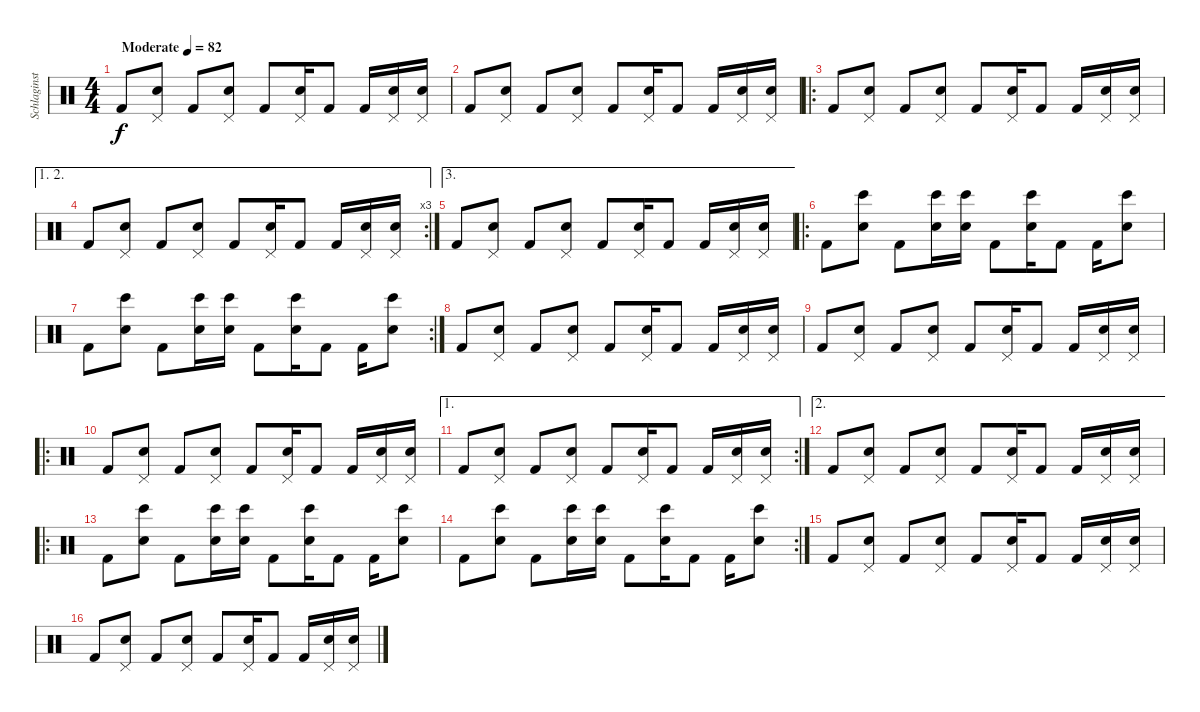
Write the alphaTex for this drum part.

\track ("Schlaginstrumente - Auswahl" "Schlaginst") {instrument percussion}
\staff {score}
\articulation defaults
\ts (4 4)
\tempo (82 "Moderate")
\clef neutral
\ks c "Kick (hit) 2".8{dy f}
("Pedal Hi-Hat (hit)" "Electric Snare (hit)").8 "Kick (hit) 2".8 ("Pedal Hi-Hat (hit)" "Electric Snare (hit)").8 "Kick (hit) 2".8 ("Pedal Hi-Hat (hit)" "Electric Snare (hit)").16 "Kick (hit) 2".8 "Kick (hit) 2".16 ("Pedal Hi-Hat (hit)" "Electric Snare (hit)").16 ("Pedal Hi-Hat (hit)" "Electric Snare (hit)").16 |
"Kick (hit) 2".8 ("Pedal Hi-Hat (hit)" "Electric Snare (hit)").8 "Kick (hit) 2".8 ("Pedal Hi-Hat (hit)" "Electric Snare (hit)").8 "Kick (hit) 2".8 ("Pedal Hi-Hat (hit)" "Electric Snare (hit)").16 "Kick (hit) 2".8 "Kick (hit) 2".16 ("Pedal Hi-Hat (hit)" "Electric Snare (hit)").16 ("Pedal Hi-Hat (hit)" "Electric Snare (hit)").16 |
\ro "Kick (hit) 2".8
("Pedal Hi-Hat (hit)" "Electric Snare (hit)").8 "Kick (hit) 2".8 ("Pedal Hi-Hat (hit)" "Electric Snare (hit)").8 "Kick (hit) 2".8 ("Pedal Hi-Hat (hit)" "Electric Snare (hit)").16 "Kick (hit) 2".8 "Kick (hit) 2".16 ("Pedal Hi-Hat (hit)" "Electric Snare (hit)").16 ("Pedal Hi-Hat (hit)" "Electric Snare (hit)").16 |
\ae (1 2)
\rc 3 "Kick (hit) 2".8
("Pedal Hi-Hat (hit)" "Electric Snare (hit)").8 "Kick (hit) 2".8 ("Pedal Hi-Hat (hit)" "Electric Snare (hit)").8 "Kick (hit) 2".8 ("Pedal Hi-Hat (hit)" "Electric Snare (hit)").16 "Kick (hit) 2".8 "Kick (hit) 2".16 ("Pedal Hi-Hat (hit)" "Electric Snare (hit)").16 ("Pedal Hi-Hat (hit)" "Electric Snare (hit)").16 |
\ae 3 "Kick (hit) 2".8
("Pedal Hi-Hat (hit)" "Electric Snare (hit)").8 "Kick (hit) 2".8 ("Pedal Hi-Hat (hit)" "Electric Snare (hit)").8 "Kick (hit) 2".8 ("Pedal Hi-Hat (hit)" "Electric Snare (hit)").16 "Kick (hit) 2".8 "Kick (hit) 2".16 ("Pedal Hi-Hat (hit)" "Electric Snare (hit)").16 ("Pedal Hi-Hat (hit)" "Electric Snare (hit)").16 |
\ro "Kick (hit) 2".8
("Bongo High (hit)" "Electric Snare (hit)").8 "Kick (hit) 2".8 ("Bongo High (hit)" "Electric Snare (hit)").16 ("Bongo High (hit)" "Electric Snare (hit)").16 "Kick (hit) 2".8 ("Bongo High (hit)" "Electric Snare (hit)").16 "Kick (hit) 2".8 "Kick (hit) 2".16 ("Bongo High (hit)" "Electric Snare (hit)").8 |
\rc 2 "Kick (hit) 2".8
("Bongo High (hit)" "Electric Snare (hit)").8 "Kick (hit) 2".8 ("Bongo High (hit)" "Electric Snare (hit)").16 ("Bongo High (hit)" "Electric Snare (hit)").16 "Kick (hit) 2".8 ("Bongo High (hit)" "Electric Snare (hit)").16 "Kick (hit) 2".8 "Kick (hit) 2".16 ("Bongo High (hit)" "Electric Snare (hit)").8 |
"Kick (hit) 2".8 ("Pedal Hi-Hat (hit)" "Electric Snare (hit)").8 "Kick (hit) 2".8 ("Pedal Hi-Hat (hit)" "Electric Snare (hit)").8 "Kick (hit) 2".8 ("Pedal Hi-Hat (hit)" "Electric Snare (hit)").16 "Kick (hit) 2".8 "Kick (hit) 2".16 ("Pedal Hi-Hat (hit)" "Electric Snare (hit)").16 ("Pedal Hi-Hat (hit)" "Electric Snare (hit)").16 |
"Kick (hit) 2".8 ("Pedal Hi-Hat (hit)" "Electric Snare (hit)").8 "Kick (hit) 2".8 ("Pedal Hi-Hat (hit)" "Electric Snare (hit)").8 "Kick (hit) 2".8 ("Pedal Hi-Hat (hit)" "Electric Snare (hit)").16 "Kick (hit) 2".8 "Kick (hit) 2".16 ("Pedal Hi-Hat (hit)" "Electric Snare (hit)").16 ("Pedal Hi-Hat (hit)" "Electric Snare (hit)").16 |
\ro "Kick (hit) 2".8
("Pedal Hi-Hat (hit)" "Electric Snare (hit)").8 "Kick (hit) 2".8 ("Pedal Hi-Hat (hit)" "Electric Snare (hit)").8 "Kick (hit) 2".8 ("Pedal Hi-Hat (hit)" "Electric Snare (hit)").16 "Kick (hit) 2".8 "Kick (hit) 2".16 ("Pedal Hi-Hat (hit)" "Electric Snare (hit)").16 ("Pedal Hi-Hat (hit)" "Electric Snare (hit)").16 |
\ae 1
\rc 2 "Kick (hit) 2".8
("Pedal Hi-Hat (hit)" "Electric Snare (hit)").8 "Kick (hit) 2".8 ("Pedal Hi-Hat (hit)" "Electric Snare (hit)").8 "Kick (hit) 2".8 ("Pedal Hi-Hat (hit)" "Electric Snare (hit)").16 "Kick (hit) 2".8 "Kick (hit) 2".16 ("Pedal Hi-Hat (hit)" "Electric Snare (hit)").16 ("Pedal Hi-Hat (hit)" "Electric Snare (hit)").16 |
\ae 2 "Kick (hit) 2".8
("Pedal Hi-Hat (hit)" "Electric Snare (hit)").8 "Kick (hit) 2".8 ("Pedal Hi-Hat (hit)" "Electric Snare (hit)").8 "Kick (hit) 2".8 ("Pedal Hi-Hat (hit)" "Electric Snare (hit)").16 "Kick (hit) 2".8 "Kick (hit) 2".16 ("Pedal Hi-Hat (hit)" "Electric Snare (hit)").16 ("Pedal Hi-Hat (hit)" "Electric Snare (hit)").16 |
\ro "Kick (hit) 2".8
("Bongo High (hit)" "Electric Snare (hit)").8 "Kick (hit) 2".8 ("Bongo High (hit)" "Electric Snare (hit)").16 ("Bongo High (hit)" "Electric Snare (hit)").16 "Kick (hit) 2".8 ("Bongo High (hit)" "Electric Snare (hit)").16 "Kick (hit) 2".8 "Kick (hit) 2".16 ("Bongo High (hit)" "Electric Snare (hit)").8 |
\rc 2 "Kick (hit) 2".8
("Bongo High (hit)" "Electric Snare (hit)").8 "Kick (hit) 2".8 ("Bongo High (hit)" "Electric Snare (hit)").16 ("Bongo High (hit)" "Electric Snare (hit)").16 "Kick (hit) 2".8 ("Bongo High (hit)" "Electric Snare (hit)").16 "Kick (hit) 2".8 "Kick (hit) 2".16 ("Bongo High (hit)" "Electric Snare (hit)").8 |
"Kick (hit) 2".8 ("Pedal Hi-Hat (hit)" "Electric Snare (hit)").8 "Kick (hit) 2".8 ("Pedal Hi-Hat (hit)" "Electric Snare (hit)").8 "Kick (hit) 2".8 ("Pedal Hi-Hat (hit)" "Electric Snare (hit)").16 "Kick (hit) 2".8 "Kick (hit) 2".16 ("Pedal Hi-Hat (hit)" "Electric Snare (hit)").16 ("Pedal Hi-Hat (hit)" "Electric Snare (hit)").16 |
"Kick (hit) 2".8 ("Pedal Hi-Hat (hit)" "Electric Snare (hit)").8 "Kick (hit) 2".8 ("Pedal Hi-Hat (hit)" "Electric Snare (hit)").8 "Kick (hit) 2".8 ("Pedal Hi-Hat (hit)" "Electric Snare (hit)").16 "Kick (hit) 2".8 "Kick (hit) 2".16 ("Pedal Hi-Hat (hit)" "Electric Snare (hit)").16 ("Pedal Hi-Hat (hit)" "Electric Snare (hit)").16
